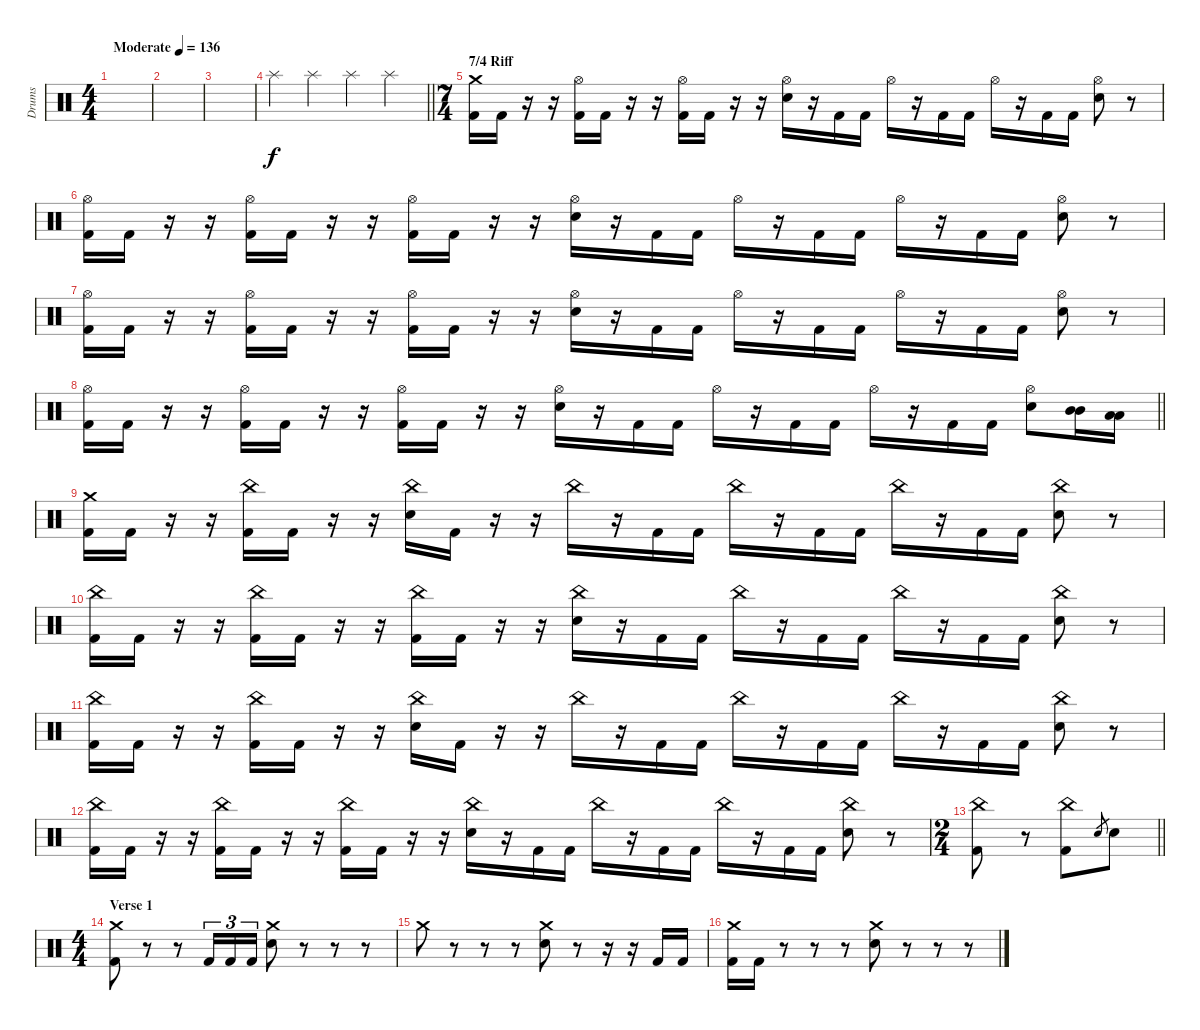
\track ("Drums" "Drums") {instrument percussion}
\staff {score}
\articulation defaults
\ts (4 4)
\tempo (136 "Moderate")
\clef neutral
\ks c
|
|
|
\barLineRight lightlight "Splash (hit)".4 "Splash (hit)".4 "Splash (hit)".4 "Splash (hit)".4
|
\ts (7 4)
\section ("" "7/4 Riff")
("Crash medium (hit)" "Kick (hit) 2").16 "Kick (hit) 2".16 r.16 r.16 ("Hi-Hat (open)" "Kick (hit) 2").16 "Kick (hit) 2".16 r.16 r.16 ("Hi-Hat (open)" "Kick (hit) 2").16 "Kick (hit) 2".16 r.16 r.16 ("Hi-Hat (open)" "Electric Snare (hit)").16 r.16 "Kick (hit) 2".16 "Kick (hit) 2".16 "Hi-Hat (open)".16 r.16 "Kick (hit) 2".16 "Kick (hit) 2".16 "Hi-Hat (open)".16 r.16 "Kick (hit) 2".16 "Kick (hit) 2".16 ("Hi-Hat (open)" "Electric Snare (hit)").8 r.8 |
("Hi-Hat (open)" "Kick (hit) 2").16 "Kick (hit) 2".16 r.16 r.16 ("Hi-Hat (open)" "Kick (hit) 2").16 "Kick (hit) 2".16 r.16 r.16 ("Hi-Hat (open)" "Kick (hit) 2").16 "Kick (hit) 2".16 r.16 r.16 ("Hi-Hat (open)" "Electric Snare (hit)").16 r.16 "Kick (hit) 2".16 "Kick (hit) 2".16 "Hi-Hat (open)".16 r.16 "Kick (hit) 2".16 "Kick (hit) 2".16 "Hi-Hat (open)".16 r.16 "Kick (hit) 2".16 "Kick (hit) 2".16 ("Hi-Hat (open)" "Electric Snare (hit)").8 r.8 |
("Hi-Hat (open)" "Kick (hit) 2").16 "Kick (hit) 2".16 r.16 r.16 ("Hi-Hat (open)" "Kick (hit) 2").16 "Kick (hit) 2".16 r.16 r.16 ("Hi-Hat (open)" "Kick (hit) 2").16 "Kick (hit) 2".16 r.16 r.16 ("Hi-Hat (open)" "Electric Snare (hit)").16 r.16 "Kick (hit) 2".16 "Kick (hit) 2".16 "Hi-Hat (open)".16 r.16 "Kick (hit) 2".16 "Kick (hit) 2".16 "Hi-Hat (open)".16 r.16 "Kick (hit) 2".16 "Kick (hit) 2".16 ("Hi-Hat (open)" "Electric Snare (hit)").8 r.8 |
\barLineRight lightlight
("Hi-Hat (open)" "Kick (hit) 2").16 "Kick (hit) 2".16 r.16 r.16 ("Hi-Hat (open)" "Kick (hit) 2").16 "Kick (hit) 2".16 r.16 r.16 ("Hi-Hat (open)" "Kick (hit) 2").16 "Kick (hit) 2".16 r.16 r.16 ("Hi-Hat (open)" "Electric Snare (hit)").16 r.16 "Kick (hit) 2".16 "Kick (hit) 2".16 "Hi-Hat (open)".16 r.16 "Kick (hit) 2".16 "Kick (hit) 2".16 "Hi-Hat (open)".16 r.16 "Kick (hit) 2".16 "Kick (hit) 2".16 ("Hi-Hat (open)" "Electric Snare (hit)").8 ("Mid Tom (hit)" "Mid Tom (hit)").16 ("Low Tom (hit)" "Low Tom (hit)").16 |
\section ("" "")
("Crash medium (hit)" "Kick (hit) 2").16 "Kick (hit) 2".16 r.16 r.16 ("China (hit)" "Kick (hit) 2").16 "Kick (hit) 2".16 r.16 r.16 ("China (hit)" "Electric Snare (hit)").16 "Kick (hit) 2".16 r.16 r.16 "China (hit)".16 r.16 "Kick (hit) 2".16 "Kick (hit) 2".16 "China (hit)".16 r.16 "Kick (hit) 2".16 "Kick (hit) 2".16 "China (hit)".16 r.16 "Kick (hit) 2".16 "Kick (hit) 2".16 ("China (hit)" "Electric Snare (hit)").8 r.8 |
("China (hit)" "Kick (hit) 2").16 "Kick (hit) 2".16 r.16 r.16 ("China (hit)" "Kick (hit) 2").16 "Kick (hit) 2".16 r.16 r.16 ("China (hit)" "Kick (hit) 2").16 "Kick (hit) 2".16 r.16 r.16 ("China (hit)" "Electric Snare (hit)").16 r.16 "Kick (hit) 2".16 "Kick (hit) 2".16 "China (hit)".16 r.16 "Kick (hit) 2".16 "Kick (hit) 2".16 "China (hit)".16 r.16 "Kick (hit) 2".16 "Kick (hit) 2".16 ("China (hit)" "Electric Snare (hit)").8 r.8 |
("China (hit)" "Kick (hit) 2").16 "Kick (hit) 2".16 r.16 r.16 ("China (hit)" "Kick (hit) 2").16 "Kick (hit) 2".16 r.16 r.16 ("China (hit)" "Electric Snare (hit)").16 "Kick (hit) 2".16 r.16 r.16 "China (hit)".16 r.16 "Kick (hit) 2".16 "Kick (hit) 2".16 "China (hit)".16 r.16 "Kick (hit) 2".16 "Kick (hit) 2".16 "China (hit)".16 r.16 "Kick (hit) 2".16 "Kick (hit) 2".16 ("China (hit)" "Electric Snare (hit)").8 r.8 |
("China (hit)" "Kick (hit) 2").16 "Kick (hit) 2".16 r.16 r.16 ("China (hit)" "Kick (hit) 2").16 "Kick (hit) 2".16 r.16 r.16 ("China (hit)" "Kick (hit) 2").16 "Kick (hit) 2".16 r.16 r.16 ("China (hit)" "Electric Snare (hit)").16 r.16 "Kick (hit) 2".16 "Kick (hit) 2".16 "China (hit)".16 r.16 "Kick (hit) 2".16 "Kick (hit) 2".16 "China (hit)".16 r.16 "Kick (hit) 2".16 "Kick (hit) 2".16 ("China (hit)" "Electric Snare (hit)").8 r.8 |
\ts (2 4)
\barLineRight lightlight
("China (hit)" "Kick (hit) 2").8 r.8 ("China (hit)" "Kick (hit) 2").8 "Electric Snare (hit)".8{gr} "Electric Snare (hit)".8 |
\ts (4 4)
\section ("" "Verse 1")
("Crash medium (hit)" "Kick (hit) 2").8 r.8 r.8 "Kick (hit) 2".16{tu (3 2)} "Kick (hit) 2".16{tu (3 2)} "Kick (hit) 2".16{tu (3 2)} ("Crash medium (hit)" "Electric Snare (hit)").8 r.8 r.8 r.8 |
"Crash medium (hit)".8 r.8 r.8 r.8 ("Crash medium (hit)" "Electric Snare (hit)").8 r.8 r.16 r.16 "Kick (hit) 2".16 "Kick (hit) 2".16 |
("Crash medium (hit)" "Kick (hit) 2").16 "Kick (hit) 2".16 r.8 r.8 r.8 ("Crash medium (hit)" "Electric Snare (hit)").8 r.8 r.8 r.8
